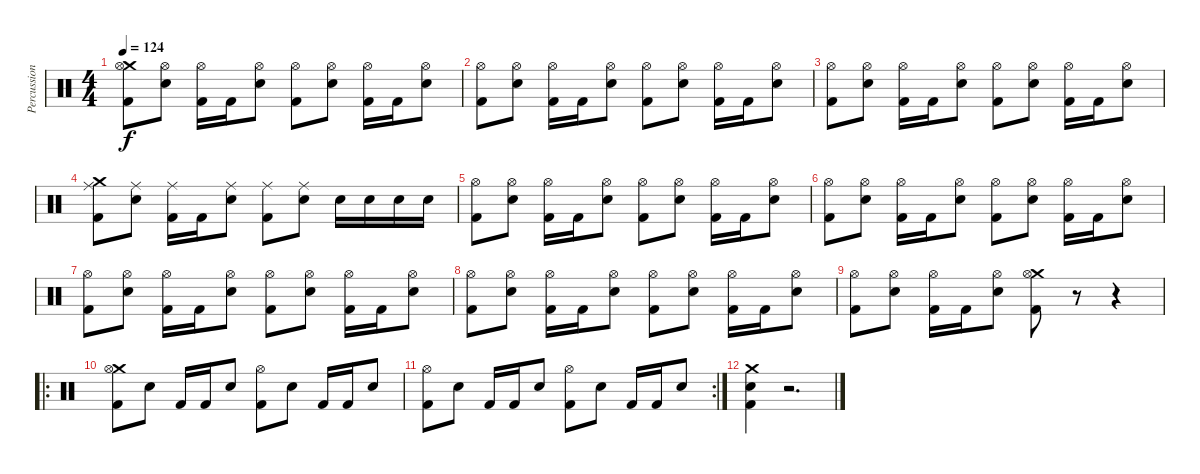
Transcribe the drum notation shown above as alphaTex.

\track ("Percussion" "Percussion") {instrument percussion}
\staff {score}
\articulation defaults
\ts (4 4)
\tempo 124
\clef neutral
\ks c
("Crash medium (hit)" "Hi-Hat (open)" "Kick (hit) 2").8{dy f} ("Hi-Hat (open)" "Electric Snare (hit)").8 ("Hi-Hat (open)" "Kick (hit) 2").16 "Kick (hit) 2".16 ("Hi-Hat (open)" "Electric Snare (hit)").8 ("Hi-Hat (open)" "Kick (hit) 2").8 ("Hi-Hat (open)" "Electric Snare (hit)").8 ("Hi-Hat (open)" "Kick (hit) 2").16 "Kick (hit) 2".16 ("Hi-Hat (open)" "Electric Snare (hit)").8 |
("Hi-Hat (open)" "Kick (hit) 2").8 ("Hi-Hat (open)" "Electric Snare (hit)").8 ("Hi-Hat (open)" "Kick (hit) 2").16 "Kick (hit) 2".16 ("Hi-Hat (open)" "Electric Snare (hit)").8 ("Hi-Hat (open)" "Kick (hit) 2").8 ("Hi-Hat (open)" "Electric Snare (hit)").8 ("Hi-Hat (open)" "Kick (hit) 2").16 "Kick (hit) 2".16 ("Hi-Hat (open)" "Electric Snare (hit)").8 |
("Hi-Hat (open)" "Kick (hit) 2").8 ("Hi-Hat (open)" "Electric Snare (hit)").8 ("Hi-Hat (open)" "Kick (hit) 2").16 "Kick (hit) 2".16 ("Hi-Hat (open)" "Electric Snare (hit)").8 ("Hi-Hat (open)" "Kick (hit) 2").8 ("Hi-Hat (open)" "Electric Snare (hit)").8 ("Hi-Hat (open)" "Kick (hit) 2").16 "Kick (hit) 2".16 ("Hi-Hat (open)" "Electric Snare (hit)").8 |
("Crash medium (hit)" "Ride (middle)" "Kick (hit) 2").8 ("Ride (middle)" "Electric Snare (hit)").8 ("Ride (middle)" "Kick (hit) 2").16 "Kick (hit) 2".16 ("Ride (middle)" "Electric Snare (hit)").8 ("Ride (middle)" "Kick (hit) 2").8 ("Ride (middle)" "Electric Snare (hit)").8 "Electric Snare (hit)".16 "Electric Snare (hit)".16 "Electric Snare (hit)".16 "Electric Snare (hit)".16 |
("Hi-Hat (open)" "Kick (hit) 2").8 ("Hi-Hat (open)" "Electric Snare (hit)").8 ("Hi-Hat (open)" "Kick (hit) 2").16 "Kick (hit) 2".16 ("Hi-Hat (open)" "Electric Snare (hit)").8 ("Hi-Hat (open)" "Kick (hit) 2").8 ("Hi-Hat (open)" "Electric Snare (hit)").8 ("Hi-Hat (open)" "Kick (hit) 2").16 "Kick (hit) 2".16 ("Hi-Hat (open)" "Electric Snare (hit)").8 |
("Hi-Hat (open)" "Kick (hit) 2").8 ("Hi-Hat (open)" "Electric Snare (hit)").8 ("Hi-Hat (open)" "Kick (hit) 2").16 "Kick (hit) 2".16 ("Hi-Hat (open)" "Electric Snare (hit)").8 ("Hi-Hat (open)" "Kick (hit) 2").8 ("Hi-Hat (open)" "Electric Snare (hit)").8 ("Hi-Hat (open)" "Kick (hit) 2").16 "Kick (hit) 2".16 ("Hi-Hat (open)" "Electric Snare (hit)").8 |
("Hi-Hat (open)" "Kick (hit) 2").8 ("Hi-Hat (open)" "Electric Snare (hit)").8 ("Hi-Hat (open)" "Kick (hit) 2").16 "Kick (hit) 2".16 ("Hi-Hat (open)" "Electric Snare (hit)").8 ("Hi-Hat (open)" "Kick (hit) 2").8 ("Hi-Hat (open)" "Electric Snare (hit)").8 ("Hi-Hat (open)" "Kick (hit) 2").16 "Kick (hit) 2".16 ("Hi-Hat (open)" "Electric Snare (hit)").8 |
("Hi-Hat (open)" "Kick (hit) 2").8 ("Hi-Hat (open)" "Electric Snare (hit)").8 ("Hi-Hat (open)" "Kick (hit) 2").16 "Kick (hit) 2".16 ("Hi-Hat (open)" "Electric Snare (hit)").8 ("Hi-Hat (open)" "Kick (hit) 2").8 ("Hi-Hat (open)" "Electric Snare (hit)").8 ("Hi-Hat (open)" "Kick (hit) 2").16 "Kick (hit) 2".16 ("Hi-Hat (open)" "Electric Snare (hit)").8 |
("Hi-Hat (open)" "Kick (hit) 2").8 ("Hi-Hat (open)" "Electric Snare (hit)").8 ("Hi-Hat (open)" "Kick (hit) 2").16 "Kick (hit) 2".16 ("Hi-Hat (open)" "Electric Snare (hit)").8 ("Crash medium (hit)" "Hi-Hat (open)" "Kick (hit) 2").8 r.8 r.4 |
\ro
("Crash medium (hit)" "Hi-Hat (open)" "Kick (hit) 2").8 "Electric Snare (hit)".8 "Kick (hit) 2".16 "Kick (hit) 2".16 "Electric Snare (hit)".8 ("Hi-Hat (open)" "Kick (hit) 2").8 "Electric Snare (hit)".8 "Kick (hit) 2".16 "Kick (hit) 2".16 "Electric Snare (hit)".8 |
\rc 2
("Hi-Hat (open)" "Kick (hit) 2").8 "Electric Snare (hit)".8 "Kick (hit) 2".16 "Kick (hit) 2".16 "Electric Snare (hit)".8 ("Hi-Hat (open)" "Kick (hit) 2").8 "Electric Snare (hit)".8 "Kick (hit) 2".16 "Kick (hit) 2".16 "Electric Snare (hit)".8 |
("Crash medium (hit)" "Electric Snare (hit)" "Kick (hit) 2").4 r.2{d}
